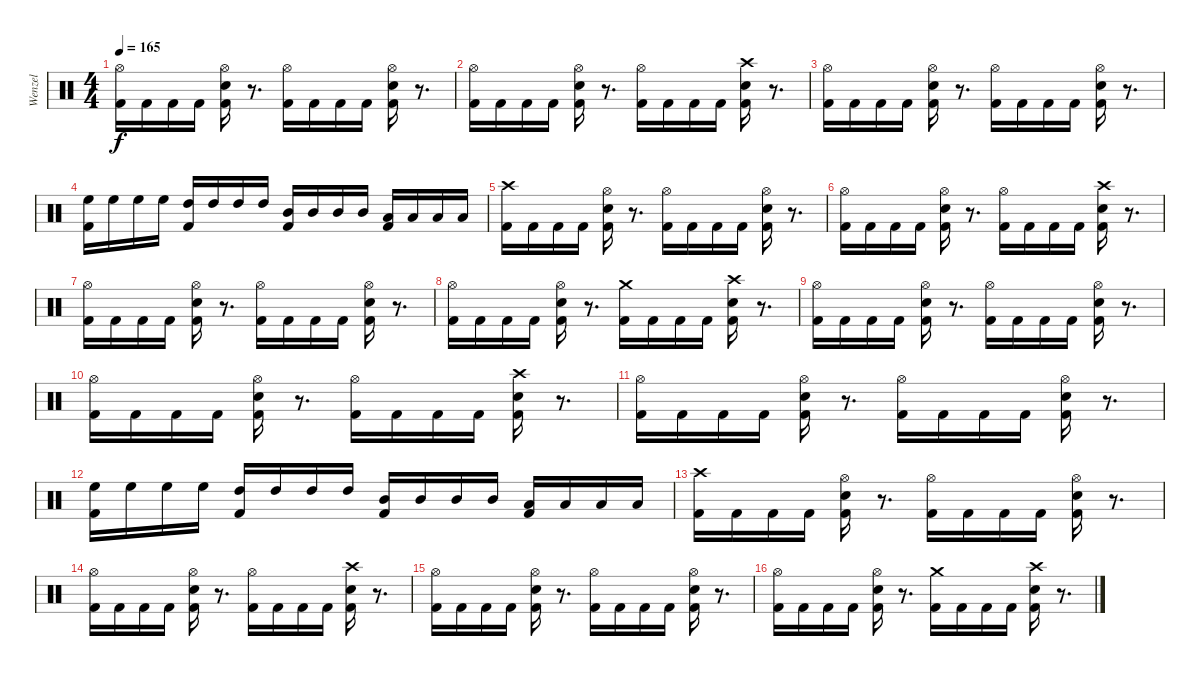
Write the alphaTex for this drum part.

\track ("Wenzel" "Wenzel") {instrument percussion}
\staff {score}
\articulation defaults
\ts (4 4)
\tempo 165
\clef neutral
\ks c
("Hi-Hat (open)" "Kick (hit) 2").16{dy f} "Kick (hit) 2".16 "Kick (hit) 2".16 "Kick (hit) 2".16 ("Hi-Hat (open)" "Snare (hit) 2" "Kick (hit) 2").16 r.8{d} ("Hi-Hat (open)" "Kick (hit) 2").16 "Kick (hit) 2".16 "Kick (hit) 2".16 "Kick (hit) 2".16 ("Hi-Hat (open)" "Snare (hit) 2" "Kick (hit) 2").16 r.8{d} |
("Hi-Hat (open)" "Kick (hit) 2").16 "Kick (hit) 2".16 "Kick (hit) 2".16 "Kick (hit) 2".16 ("Hi-Hat (open)" "Snare (hit) 2" "Kick (hit) 2").16 r.8{d} ("Hi-Hat (open)" "Kick (hit) 2").16 "Kick (hit) 2".16 "Kick (hit) 2".16 "Kick (hit) 2".16 ("Crash high (hit)" "Snare (hit) 2" "Kick (hit) 2").16 r.8{d} |
("Hi-Hat (open)" "Kick (hit) 2").16 "Kick (hit) 2".16 "Kick (hit) 2".16 "Kick (hit) 2".16 ("Hi-Hat (open)" "Snare (hit) 2" "Kick (hit) 2").16 r.8{d} ("Hi-Hat (open)" "Kick (hit) 2").16 "Kick (hit) 2".16 "Kick (hit) 2".16 "Kick (hit) 2".16 ("Hi-Hat (open)" "Snare (hit) 2" "Kick (hit) 2").16 r.8{d} |
("High Floor Tom (hit)" "Kick (hit) 2").16 "High Floor Tom (hit)".16 "High Floor Tom (hit)".16 "High Floor Tom (hit)".16 ("High Tom (hit)" "Kick (hit) 2").16 "High Tom (hit)".16 "High Tom (hit)".16 "High Tom (hit)".16 ("Mid Tom (hit)" "Kick (hit) 2").16 "Mid Tom (hit)".16 "Mid Tom (hit)".16 "Mid Tom (hit)".16 ("Low Tom (hit)" "Kick (hit) 2").16 "Low Tom (hit)".16 "Low Tom (hit)".16 "Low Tom (hit)".16 |
("Crash high (hit)" "Kick (hit) 2").16 "Kick (hit) 2".16 "Kick (hit) 2".16 "Kick (hit) 2".16 ("Hi-Hat (open)" "Snare (hit) 2" "Kick (hit) 2").16 r.8{d} ("Hi-Hat (open)" "Kick (hit) 2").16 "Kick (hit) 2".16 "Kick (hit) 2".16 "Kick (hit) 2".16 ("Hi-Hat (open)" "Snare (hit) 2" "Kick (hit) 2").16 r.8{d} |
("Hi-Hat (open)" "Kick (hit) 2").16 "Kick (hit) 2".16 "Kick (hit) 2".16 "Kick (hit) 2".16 ("Hi-Hat (open)" "Snare (hit) 2" "Kick (hit) 2").16 r.8{d} ("Hi-Hat (open)" "Kick (hit) 2").16 "Kick (hit) 2".16 "Kick (hit) 2".16 "Kick (hit) 2".16 ("Crash high (hit)" "Snare (hit) 2" "Kick (hit) 2").16 r.8{d} |
("Hi-Hat (open)" "Kick (hit) 2").16 "Kick (hit) 2".16 "Kick (hit) 2".16 "Kick (hit) 2".16 ("Hi-Hat (open)" "Snare (hit) 2" "Kick (hit) 2").16 r.8{d} ("Hi-Hat (open)" "Kick (hit) 2").16 "Kick (hit) 2".16 "Kick (hit) 2".16 "Kick (hit) 2".16 ("Hi-Hat (open)" "Snare (hit) 2" "Kick (hit) 2").16 r.8{d} |
("Hi-Hat (open)" "Kick (hit) 2").16 "Kick (hit) 2".16 "Kick (hit) 2".16 "Kick (hit) 2".16 ("Hi-Hat (open)" "Snare (hit) 2" "Kick (hit) 2").16 r.8{d} ("Crash medium (hit)" "Kick (hit) 2").16 "Kick (hit) 2".16 "Kick (hit) 2".16 "Kick (hit) 2".16 ("Crash high (hit)" "Snare (hit) 2" "Kick (hit) 2").16 r.8{d} |
("Hi-Hat (open)" "Kick (hit) 2").16 "Kick (hit) 2".16 "Kick (hit) 2".16 "Kick (hit) 2".16 ("Hi-Hat (open)" "Snare (hit) 2" "Kick (hit) 2").16 r.8{d} ("Hi-Hat (open)" "Kick (hit) 2").16 "Kick (hit) 2".16 "Kick (hit) 2".16 "Kick (hit) 2".16 ("Hi-Hat (open)" "Snare (hit) 2" "Kick (hit) 2").16 r.8{d} |
("Hi-Hat (open)" "Kick (hit) 2").16 "Kick (hit) 2".16 "Kick (hit) 2".16 "Kick (hit) 2".16 ("Hi-Hat (open)" "Snare (hit) 2" "Kick (hit) 2").16 r.8{d} ("Hi-Hat (open)" "Kick (hit) 2").16 "Kick (hit) 2".16 "Kick (hit) 2".16 "Kick (hit) 2".16 ("Crash high (hit)" "Snare (hit) 2" "Kick (hit) 2").16 r.8{d} |
("Hi-Hat (open)" "Kick (hit) 2").16 "Kick (hit) 2".16 "Kick (hit) 2".16 "Kick (hit) 2".16 ("Hi-Hat (open)" "Snare (hit) 2" "Kick (hit) 2").16 r.8{d} ("Hi-Hat (open)" "Kick (hit) 2").16 "Kick (hit) 2".16 "Kick (hit) 2".16 "Kick (hit) 2".16 ("Hi-Hat (open)" "Snare (hit) 2" "Kick (hit) 2").16 r.8{d} |
("High Floor Tom (hit)" "Kick (hit) 2").16 "High Floor Tom (hit)".16 "High Floor Tom (hit)".16 "High Floor Tom (hit)".16 ("High Tom (hit)" "Kick (hit) 2").16 "High Tom (hit)".16 "High Tom (hit)".16 "High Tom (hit)".16 ("Mid Tom (hit)" "Kick (hit) 2").16 "Mid Tom (hit)".16 "Mid Tom (hit)".16 "Mid Tom (hit)".16 ("Low Tom (hit)" "Kick (hit) 2").16 "Low Tom (hit)".16 "Low Tom (hit)".16 "Low Tom (hit)".16 |
("Crash high (hit)" "Kick (hit) 2").16 "Kick (hit) 2".16 "Kick (hit) 2".16 "Kick (hit) 2".16 ("Hi-Hat (open)" "Snare (hit) 2" "Kick (hit) 2").16 r.8{d} ("Hi-Hat (open)" "Kick (hit) 2").16 "Kick (hit) 2".16 "Kick (hit) 2".16 "Kick (hit) 2".16 ("Hi-Hat (open)" "Snare (hit) 2" "Kick (hit) 2").16 r.8{d} |
("Hi-Hat (open)" "Kick (hit) 2").16 "Kick (hit) 2".16 "Kick (hit) 2".16 "Kick (hit) 2".16 ("Hi-Hat (open)" "Snare (hit) 2" "Kick (hit) 2").16 r.8{d} ("Hi-Hat (open)" "Kick (hit) 2").16 "Kick (hit) 2".16 "Kick (hit) 2".16 "Kick (hit) 2".16 ("Crash high (hit)" "Snare (hit) 2" "Kick (hit) 2").16 r.8{d} |
("Hi-Hat (open)" "Kick (hit) 2").16 "Kick (hit) 2".16 "Kick (hit) 2".16 "Kick (hit) 2".16 ("Hi-Hat (open)" "Snare (hit) 2" "Kick (hit) 2").16 r.8{d} ("Hi-Hat (open)" "Kick (hit) 2").16 "Kick (hit) 2".16 "Kick (hit) 2".16 "Kick (hit) 2".16 ("Hi-Hat (open)" "Snare (hit) 2" "Kick (hit) 2").16 r.8{d} |
("Hi-Hat (open)" "Kick (hit) 2").16 "Kick (hit) 2".16 "Kick (hit) 2".16 "Kick (hit) 2".16 ("Hi-Hat (open)" "Snare (hit) 2" "Kick (hit) 2").16 r.8{d} ("Crash medium (hit)" "Kick (hit) 2").16 "Kick (hit) 2".16 "Kick (hit) 2".16 "Kick (hit) 2".16 ("Crash high (hit)" "Snare (hit) 2" "Kick (hit) 2").16 r.8{d}
